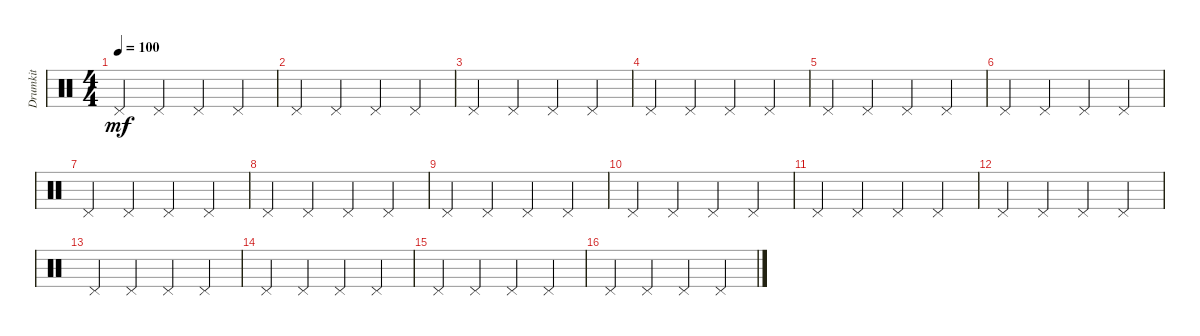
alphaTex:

\track ("Drumkit" "Drumkit") {instrument percussion}
\staff {score}
\articulation defaults
\ts (4 4)
\tempo 100
\clef neutral
\ks c "Pedal Hi-Hat (hit)".4{dy mf} "Pedal Hi-Hat (hit)".4 "Pedal Hi-Hat (hit)".4 "Pedal Hi-Hat (hit)".4
|
"Pedal Hi-Hat (hit)".4 "Pedal Hi-Hat (hit)".4 "Pedal Hi-Hat (hit)".4 "Pedal Hi-Hat (hit)".4 |
"Pedal Hi-Hat (hit)".4 "Pedal Hi-Hat (hit)".4 "Pedal Hi-Hat (hit)".4 "Pedal Hi-Hat (hit)".4 |
"Pedal Hi-Hat (hit)".4 "Pedal Hi-Hat (hit)".4 "Pedal Hi-Hat (hit)".4 "Pedal Hi-Hat (hit)".4 |
"Pedal Hi-Hat (hit)".4 "Pedal Hi-Hat (hit)".4 "Pedal Hi-Hat (hit)".4 "Pedal Hi-Hat (hit)".4 |
"Pedal Hi-Hat (hit)".4 "Pedal Hi-Hat (hit)".4 "Pedal Hi-Hat (hit)".4 "Pedal Hi-Hat (hit)".4 |
"Pedal Hi-Hat (hit)".4 "Pedal Hi-Hat (hit)".4 "Pedal Hi-Hat (hit)".4 "Pedal Hi-Hat (hit)".4 |
"Pedal Hi-Hat (hit)".4 "Pedal Hi-Hat (hit)".4 "Pedal Hi-Hat (hit)".4 "Pedal Hi-Hat (hit)".4 |
"Pedal Hi-Hat (hit)".4 "Pedal Hi-Hat (hit)".4 "Pedal Hi-Hat (hit)".4 "Pedal Hi-Hat (hit)".4 |
"Pedal Hi-Hat (hit)".4 "Pedal Hi-Hat (hit)".4 "Pedal Hi-Hat (hit)".4 "Pedal Hi-Hat (hit)".4 |
"Pedal Hi-Hat (hit)".4 "Pedal Hi-Hat (hit)".4 "Pedal Hi-Hat (hit)".4 "Pedal Hi-Hat (hit)".4 |
"Pedal Hi-Hat (hit)".4 "Pedal Hi-Hat (hit)".4 "Pedal Hi-Hat (hit)".4 "Pedal Hi-Hat (hit)".4 |
"Pedal Hi-Hat (hit)".4 "Pedal Hi-Hat (hit)".4 "Pedal Hi-Hat (hit)".4 "Pedal Hi-Hat (hit)".4 |
"Pedal Hi-Hat (hit)".4 "Pedal Hi-Hat (hit)".4 "Pedal Hi-Hat (hit)".4 "Pedal Hi-Hat (hit)".4 |
"Pedal Hi-Hat (hit)".4 "Pedal Hi-Hat (hit)".4 "Pedal Hi-Hat (hit)".4 "Pedal Hi-Hat (hit)".4 |
"Pedal Hi-Hat (hit)".4 "Pedal Hi-Hat (hit)".4 "Pedal Hi-Hat (hit)".4 "Pedal Hi-Hat (hit)".4
